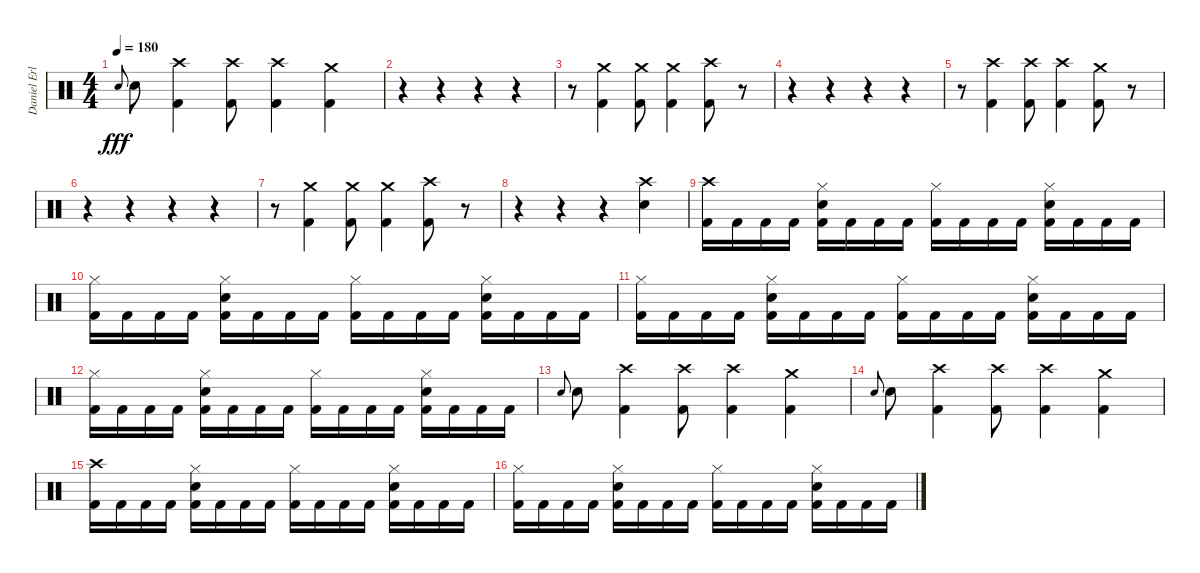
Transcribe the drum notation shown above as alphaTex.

\track ("Daniel Erlandsson" "Daniel Erl") {instrument percussion}
\staff {score}
\articulation defaults
\ts (4 4)
\tempo 180
\clef neutral
\ks c "Electric Snare (hit)".8{gr onbeat dy fff} "Electric Snare (hit)".8
("Crash high (hit)" "Kick (hit) 2").4 ("Crash high (hit)" "Kick (hit) 2").8 ("Crash high (hit)" "Kick (hit) 2").4 ("Crash medium (hit)" "Kick (hit) 2").4 |
r.4{volume 0} r.4 r.4 r.4 |
r.8 ("Crash medium (hit)" "Kick (hit) 2").4{volume 16} ("Crash medium (hit)" "Kick (hit) 2").8 ("Crash medium (hit)" "Kick (hit) 2").4 ("Crash high (hit)" "Kick (hit) 2").8 r.8 |
r.4{volume 0} r.4 r.4 r.4 |
r.8 ("Crash high (hit)" "Kick (hit) 2").4{volume 16} ("Crash high (hit)" "Kick (hit) 2").8 ("Crash high (hit)" "Kick (hit) 2").4 ("Crash medium (hit)" "Kick (hit) 2").8 r.8 |
r.4{volume 0} r.4 r.4 r.4 |
r.8 ("Crash medium (hit)" "Kick (hit) 2").4{volume 16} ("Crash medium (hit)" "Kick (hit) 2").8 ("Crash medium (hit)" "Kick (hit) 2").4 ("Crash high (hit)" "Kick (hit) 2").8 r.8 |
r.4{volume 0} r.4 r.4 ("Crash high (hit)" "Electric Snare (hit)").4{volume 16} |
("Crash high (hit)" "Kick (hit) 2").16 "Kick (hit) 2".16 "Kick (hit) 2".16 "Kick (hit) 2".16 ("Hi-Hat (closed)" "Electric Snare (hit)" "Kick (hit) 2").16 "Kick (hit) 2".16 "Kick (hit) 2".16 "Kick (hit) 2".16 ("Hi-Hat (closed)" "Kick (hit) 2").16 "Kick (hit) 2".16 "Kick (hit) 2".16 "Kick (hit) 2".16 ("Hi-Hat (closed)" "Electric Snare (hit)" "Kick (hit) 2").16 "Kick (hit) 2".16 "Kick (hit) 2".16 "Kick (hit) 2".16 |
("Hi-Hat (closed)" "Kick (hit) 2").16 "Kick (hit) 2".16 "Kick (hit) 2".16 "Kick (hit) 2".16 ("Hi-Hat (closed)" "Electric Snare (hit)" "Kick (hit) 2").16 "Kick (hit) 2".16 "Kick (hit) 2".16 "Kick (hit) 2".16 ("Hi-Hat (closed)" "Kick (hit) 2").16 "Kick (hit) 2".16 "Kick (hit) 2".16 "Kick (hit) 2".16 ("Hi-Hat (closed)" "Electric Snare (hit)" "Kick (hit) 2").16 "Kick (hit) 2".16 "Kick (hit) 2".16 "Kick (hit) 2".16 |
("Hi-Hat (closed)" "Kick (hit) 2").16 "Kick (hit) 2".16 "Kick (hit) 2".16 "Kick (hit) 2".16 ("Hi-Hat (closed)" "Electric Snare (hit)" "Kick (hit) 2").16 "Kick (hit) 2".16 "Kick (hit) 2".16 "Kick (hit) 2".16 ("Hi-Hat (closed)" "Kick (hit) 2").16 "Kick (hit) 2".16 "Kick (hit) 2".16 "Kick (hit) 2".16 ("Hi-Hat (closed)" "Electric Snare (hit)" "Kick (hit) 2").16 "Kick (hit) 2".16 "Kick (hit) 2".16 "Kick (hit) 2".16 |
("Hi-Hat (closed)" "Kick (hit) 2").16 "Kick (hit) 2".16 "Kick (hit) 2".16 "Kick (hit) 2".16 ("Hi-Hat (closed)" "Electric Snare (hit)" "Kick (hit) 2").16 "Kick (hit) 2".16 "Kick (hit) 2".16 "Kick (hit) 2".16 ("Hi-Hat (closed)" "Kick (hit) 2").16 "Kick (hit) 2".16 "Kick (hit) 2".16 "Kick (hit) 2".16 ("Hi-Hat (closed)" "Electric Snare (hit)" "Kick (hit) 2").16 "Kick (hit) 2".16 "Kick (hit) 2".16 "Kick (hit) 2".16 |
"Electric Snare (hit)".8{gr onbeat} "Electric Snare (hit)".8 ("Crash high (hit)" "Kick (hit) 2").4 ("Crash high (hit)" "Kick (hit) 2").8 ("Crash high (hit)" "Kick (hit) 2").4 ("Crash medium (hit)" "Kick (hit) 2").4 |
"Electric Snare (hit)".8{gr onbeat} "Electric Snare (hit)".8 ("Crash high (hit)" "Kick (hit) 2").4 ("Crash high (hit)" "Kick (hit) 2").8 ("Crash high (hit)" "Kick (hit) 2").4 ("Crash medium (hit)" "Kick (hit) 2").4 |
("Crash high (hit)" "Kick (hit) 2").16 "Kick (hit) 2".16 "Kick (hit) 2".16 "Kick (hit) 2".16 ("Hi-Hat (closed)" "Electric Snare (hit)" "Kick (hit) 2").16 "Kick (hit) 2".16 "Kick (hit) 2".16 "Kick (hit) 2".16 ("Hi-Hat (closed)" "Kick (hit) 2").16 "Kick (hit) 2".16 "Kick (hit) 2".16 "Kick (hit) 2".16 ("Hi-Hat (closed)" "Electric Snare (hit)" "Kick (hit) 2").16 "Kick (hit) 2".16 "Kick (hit) 2".16 "Kick (hit) 2".16 |
("Hi-Hat (closed)" "Kick (hit) 2").16 "Kick (hit) 2".16 "Kick (hit) 2".16 "Kick (hit) 2".16 ("Hi-Hat (closed)" "Electric Snare (hit)" "Kick (hit) 2").16 "Kick (hit) 2".16 "Kick (hit) 2".16 "Kick (hit) 2".16 ("Hi-Hat (closed)" "Kick (hit) 2").16 "Kick (hit) 2".16 "Kick (hit) 2".16 "Kick (hit) 2".16 ("Hi-Hat (closed)" "Electric Snare (hit)" "Kick (hit) 2").16 "Kick (hit) 2".16 "Kick (hit) 2".16 "Kick (hit) 2".16
